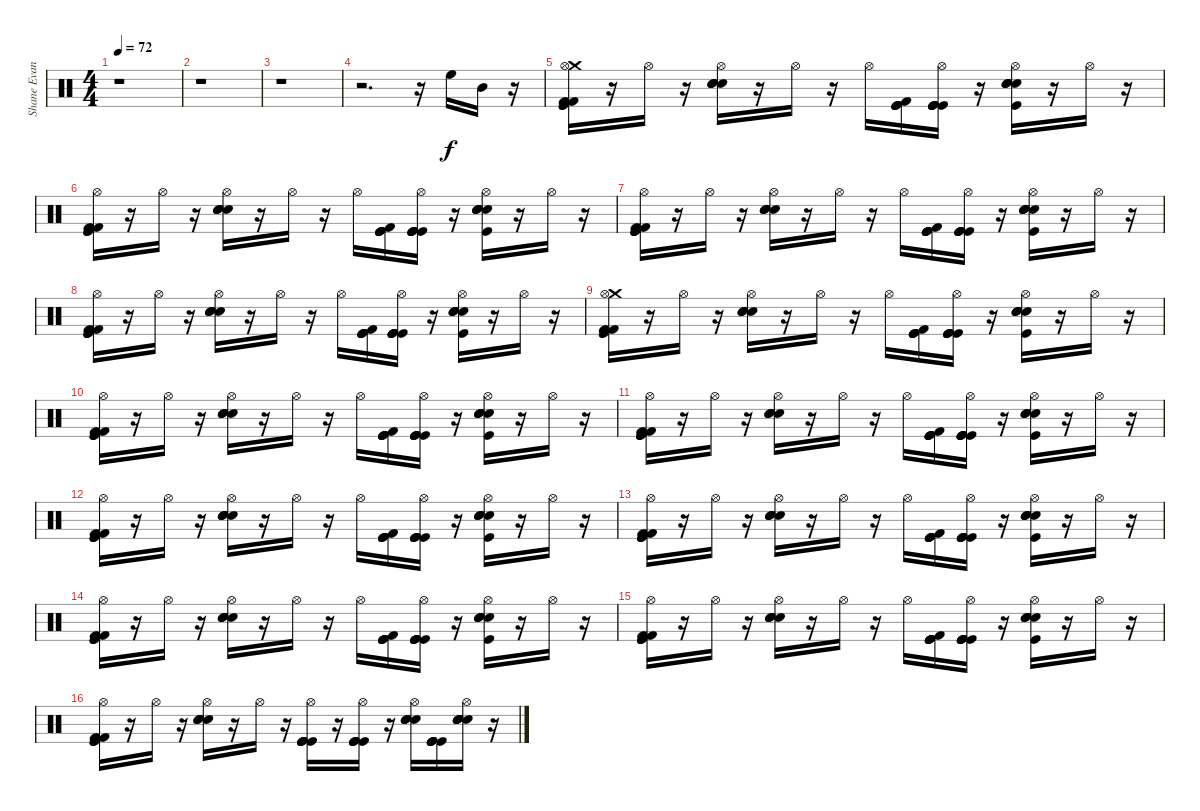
\track ("Shane Evans" "Shane Evan") {instrument percussion}
\staff {score}
\articulation defaults
\ts (4 4)
\tempo 72
\clef neutral
\ks c
r.1{dy f} |
r.1 |
r.1 |
r.2{d} r.16 "High Floor Tom (hit)".16 "Mid Tom (hit)".16 r.16 |
("Crash medium (hit)" "Kick (hit) 2" "Kick (hit) 2" "Hi-Hat (open)" "Kick (hit)" "Kick (hit)").16 r.16 "Hi-Hat (open)".16 r.16 ("Hi-Hat (open)" "Snare (hit) 2" "Snare (hit) 2" "Snare (hit) 2" "Snare (hit) 2").16 r.16 "Hi-Hat (open)".16 r.16 "Hi-Hat (open)".16 ("Kick (hit)" "Kick (hit)" "Kick (hit)" "Kick (hit)" "Kick (hit) 2").16 ("Hi-Hat (open)" "Kick (hit)" "Kick (hit)" "Kick (hit)" "Kick (hit)" "Kick (hit)").16 r.16 ("Hi-Hat (open)" "Snare (hit) 2" "Snare (hit) 2" "Snare (hit) 2" "Snare (hit) 2" "Kick (hit)").16 r.16 "Hi-Hat (open)".16 r.16 |
("Kick (hit) 2" "Kick (hit) 2" "Hi-Hat (open)" "Kick (hit)" "Kick (hit)" "Kick (hit)").16 r.16 "Hi-Hat (open)".16 r.16 ("Hi-Hat (open)" "Snare (hit) 2" "Snare (hit) 2" "Snare (hit) 2" "Snare (hit) 2").16 r.16 "Hi-Hat (open)".16 r.16 "Hi-Hat (open)".16 ("Kick (hit)" "Kick (hit)" "Kick (hit)" "Kick (hit)" "Kick (hit) 2").16 ("Hi-Hat (open)" "Kick (hit)" "Kick (hit)" "Kick (hit)" "Kick (hit)" "Kick (hit)").16 r.16 ("Hi-Hat (open)" "Snare (hit) 2" "Snare (hit) 2" "Snare (hit) 2" "Snare (hit) 2" "Kick (hit)").16 r.16 "Hi-Hat (open)".16 r.16 |
("Kick (hit) 2" "Kick (hit) 2" "Hi-Hat (open)" "Kick (hit)" "Kick (hit)" "Kick (hit)").16 r.16 "Hi-Hat (open)".16 r.16 ("Hi-Hat (open)" "Snare (hit) 2" "Snare (hit) 2" "Snare (hit) 2" "Snare (hit) 2").16 r.16 "Hi-Hat (open)".16 r.16 "Hi-Hat (open)".16 ("Kick (hit)" "Kick (hit)" "Kick (hit)" "Kick (hit)" "Kick (hit) 2").16 ("Hi-Hat (open)" "Kick (hit)" "Kick (hit)" "Kick (hit)" "Kick (hit)" "Kick (hit)").16 r.16 ("Hi-Hat (open)" "Snare (hit) 2" "Snare (hit) 2" "Snare (hit) 2" "Snare (hit) 2" "Kick (hit)").16 r.16 "Hi-Hat (open)".16 r.16 |
("Kick (hit) 2" "Kick (hit) 2" "Hi-Hat (open)" "Kick (hit)" "Kick (hit)" "Kick (hit)").16 r.16 "Hi-Hat (open)".16 r.16 ("Hi-Hat (open)" "Snare (hit) 2" "Snare (hit) 2" "Snare (hit) 2" "Snare (hit) 2").16 r.16 "Hi-Hat (open)".16 r.16 "Hi-Hat (open)".16 ("Kick (hit)" "Kick (hit)" "Kick (hit)" "Kick (hit)" "Kick (hit) 2").16 ("Hi-Hat (open)" "Kick (hit)" "Kick (hit)" "Kick (hit)" "Kick (hit)" "Kick (hit)").16 r.16 ("Hi-Hat (open)" "Snare (hit) 2" "Snare (hit) 2" "Snare (hit) 2" "Snare (hit) 2" "Kick (hit)").16 r.16 "Hi-Hat (open)".16 r.16 |
("Crash medium (hit)" "Kick (hit) 2" "Kick (hit) 2" "Hi-Hat (open)" "Kick (hit)" "Kick (hit)").16 r.16 "Hi-Hat (open)".16 r.16 ("Hi-Hat (open)" "Snare (hit) 2" "Snare (hit) 2" "Snare (hit) 2" "Snare (hit) 2").16 r.16 "Hi-Hat (open)".16 r.16 "Hi-Hat (open)".16 ("Kick (hit)" "Kick (hit)" "Kick (hit)" "Kick (hit)" "Kick (hit) 2").16 ("Hi-Hat (open)" "Kick (hit)" "Kick (hit)" "Kick (hit)" "Kick (hit)" "Kick (hit)").16 r.16 ("Hi-Hat (open)" "Snare (hit) 2" "Snare (hit) 2" "Snare (hit) 2" "Snare (hit) 2" "Kick (hit)").16 r.16 "Hi-Hat (open)".16 r.16 |
("Kick (hit) 2" "Kick (hit) 2" "Hi-Hat (open)" "Kick (hit)" "Kick (hit)" "Kick (hit)").16 r.16 "Hi-Hat (open)".16 r.16 ("Hi-Hat (open)" "Snare (hit) 2" "Snare (hit) 2" "Snare (hit) 2" "Snare (hit) 2").16 r.16 "Hi-Hat (open)".16 r.16 "Hi-Hat (open)".16 ("Kick (hit)" "Kick (hit)" "Kick (hit)" "Kick (hit)" "Kick (hit) 2").16 ("Hi-Hat (open)" "Kick (hit)" "Kick (hit)" "Kick (hit)" "Kick (hit)" "Kick (hit)").16 r.16 ("Hi-Hat (open)" "Snare (hit) 2" "Snare (hit) 2" "Snare (hit) 2" "Snare (hit) 2" "Kick (hit)").16 r.16 "Hi-Hat (open)".16 r.16 |
("Kick (hit) 2" "Kick (hit) 2" "Hi-Hat (open)" "Kick (hit)" "Kick (hit)" "Kick (hit)").16 r.16 "Hi-Hat (open)".16 r.16 ("Hi-Hat (open)" "Snare (hit) 2" "Snare (hit) 2" "Snare (hit) 2" "Snare (hit) 2").16 r.16 "Hi-Hat (open)".16 r.16 "Hi-Hat (open)".16 ("Kick (hit)" "Kick (hit)" "Kick (hit)" "Kick (hit)" "Kick (hit) 2").16 ("Hi-Hat (open)" "Kick (hit)" "Kick (hit)" "Kick (hit)" "Kick (hit)" "Kick (hit)").16 r.16 ("Hi-Hat (open)" "Snare (hit) 2" "Snare (hit) 2" "Snare (hit) 2" "Snare (hit) 2" "Kick (hit)").16 r.16 "Hi-Hat (open)".16 r.16 |
("Kick (hit) 2" "Kick (hit) 2" "Hi-Hat (open)" "Kick (hit)" "Kick (hit)" "Kick (hit)").16 r.16 "Hi-Hat (open)".16 r.16 ("Hi-Hat (open)" "Snare (hit) 2" "Snare (hit) 2" "Snare (hit) 2" "Snare (hit) 2").16 r.16 "Hi-Hat (open)".16 r.16 "Hi-Hat (open)".16 ("Kick (hit)" "Kick (hit)" "Kick (hit)" "Kick (hit)" "Kick (hit) 2").16 ("Hi-Hat (open)" "Kick (hit)" "Kick (hit)" "Kick (hit)" "Kick (hit)" "Kick (hit)").16 r.16 ("Hi-Hat (open)" "Snare (hit) 2" "Snare (hit) 2" "Snare (hit) 2" "Snare (hit) 2" "Kick (hit)").16 r.16 "Hi-Hat (open)".16 r.16 |
("Kick (hit) 2" "Kick (hit) 2" "Hi-Hat (open)" "Kick (hit)" "Kick (hit)" "Kick (hit)").16 r.16 "Hi-Hat (open)".16 r.16 ("Hi-Hat (open)" "Snare (hit) 2" "Snare (hit) 2" "Snare (hit) 2" "Snare (hit) 2").16 r.16 "Hi-Hat (open)".16 r.16 "Hi-Hat (open)".16 ("Kick (hit)" "Kick (hit)" "Kick (hit)" "Kick (hit)" "Kick (hit) 2").16 ("Hi-Hat (open)" "Kick (hit)" "Kick (hit)" "Kick (hit)" "Kick (hit)" "Kick (hit)").16 r.16 ("Hi-Hat (open)" "Snare (hit) 2" "Snare (hit) 2" "Snare (hit) 2" "Snare (hit) 2" "Kick (hit)").16 r.16 "Hi-Hat (open)".16 r.16 |
("Kick (hit) 2" "Kick (hit) 2" "Hi-Hat (open)" "Kick (hit)" "Kick (hit)" "Kick (hit)").16 r.16 "Hi-Hat (open)".16 r.16 ("Hi-Hat (open)" "Snare (hit) 2" "Snare (hit) 2" "Snare (hit) 2" "Snare (hit) 2").16 r.16 "Hi-Hat (open)".16 r.16 "Hi-Hat (open)".16 ("Kick (hit)" "Kick (hit)" "Kick (hit)" "Kick (hit)" "Kick (hit) 2").16 ("Hi-Hat (open)" "Kick (hit)" "Kick (hit)" "Kick (hit)" "Kick (hit)" "Kick (hit)").16 r.16 ("Hi-Hat (open)" "Snare (hit) 2" "Snare (hit) 2" "Snare (hit) 2" "Snare (hit) 2" "Kick (hit)").16 r.16 "Hi-Hat (open)".16 r.16 |
("Kick (hit) 2" "Kick (hit) 2" "Hi-Hat (open)" "Kick (hit)" "Kick (hit)" "Kick (hit)").16 r.16 "Hi-Hat (open)".16 r.16 ("Hi-Hat (open)" "Snare (hit) 2" "Snare (hit) 2" "Snare (hit) 2" "Snare (hit) 2").16 r.16 "Hi-Hat (open)".16 r.16 "Hi-Hat (open)".16 ("Kick (hit)" "Kick (hit)" "Kick (hit)" "Kick (hit)" "Kick (hit) 2").16 ("Hi-Hat (open)" "Kick (hit)" "Kick (hit)" "Kick (hit)" "Kick (hit)" "Kick (hit)").16 r.16 ("Hi-Hat (open)" "Snare (hit) 2" "Snare (hit) 2" "Snare (hit) 2" "Snare (hit) 2" "Kick (hit)").16 r.16 "Hi-Hat (open)".16 r.16 |
("Kick (hit) 2" "Kick (hit) 2" "Hi-Hat (open)" "Kick (hit)" "Kick (hit)" "Kick (hit)").16 r.16 "Hi-Hat (open)".16 r.16 ("Hi-Hat (open)" "Snare (hit) 2" "Snare (hit) 2" "Snare (hit) 2" "Snare (hit) 2").16 r.16 "Hi-Hat (open)".16 r.16 ("Hi-Hat (open)" "Kick (hit)" "Kick (hit)" "Kick (hit)" "Kick (hit)" "Kick (hit)").16 r.16 ("Hi-Hat (open)" "Kick (hit)" "Kick (hit)" "Kick (hit)" "Kick (hit)" "Kick (hit)").16 r.16 ("Hi-Hat (open)" "Snare (hit) 2" "Snare (hit) 2" "Snare (hit) 2" "Snare (hit) 2").16 ("Kick (hit)" "Kick (hit)" "Kick (hit)" "Kick (hit)" "Kick (hit)").16 ("Hi-Hat (open)" "Snare (hit) 2" "Snare (hit) 2" "Snare (hit) 2" "Snare (hit) 2" "Snare (hit) 2").16 r.16
